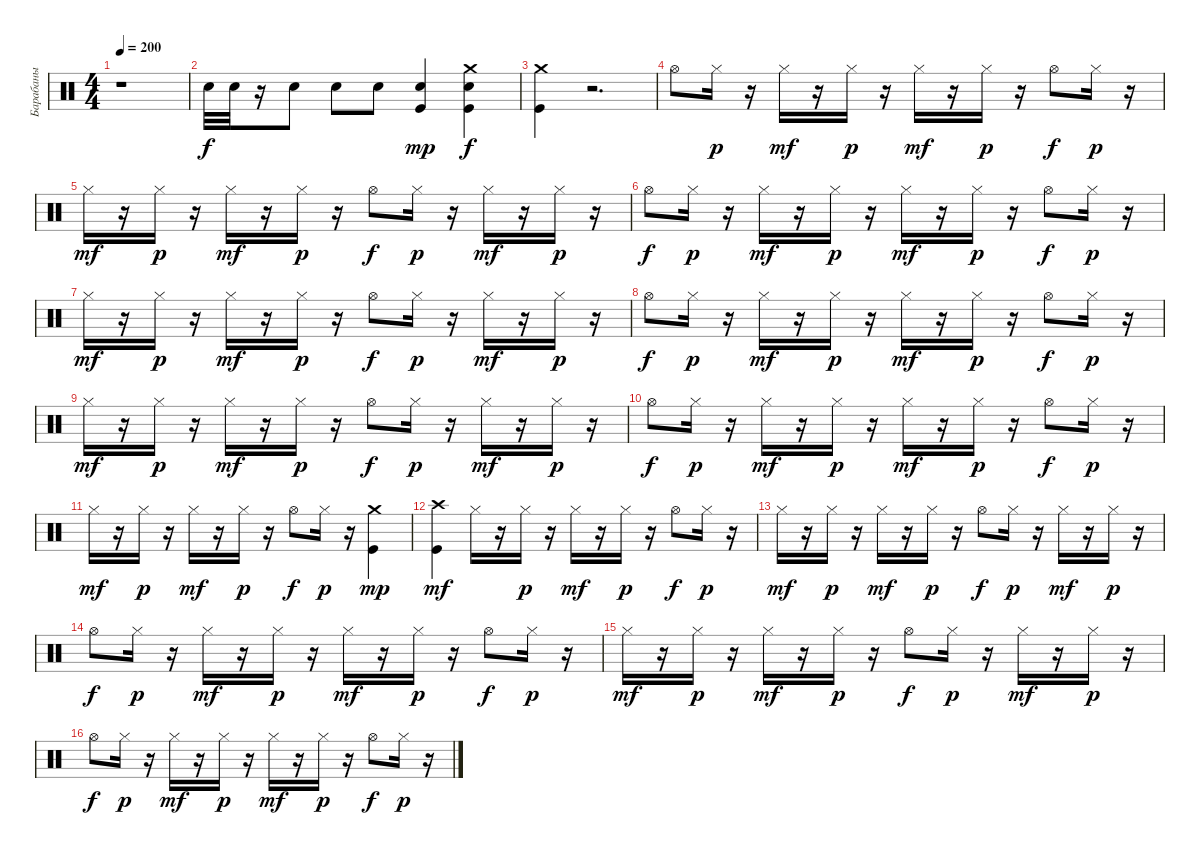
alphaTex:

\track ("Барабаны" "Барабаны") {instrument percussion}
\staff {score}
\articulation defaults
\ts (4 4)
\tempo 200
\clef neutral
\ks c
r.1{dy f} |
"Electric Snare (hit)".32{volume 11 balance 8} "Electric Snare (hit)".32 r.16 "Electric Snare (hit)".8 "Electric Snare (hit)".8 "Electric Snare (hit)".8 ("Kick (hit)" "Electric Snare (hit)").4{dy mp} ("Kick (hit)" "Crash medium (hit)" "Electric Snare (hit)").4{dy f} |
("Kick (hit)" "Crash medium (hit)").4 r.2{d} |
"Hi-Hat (open)".8 "Hi-Hat (closed)".16{dy p} r.16 "Hi-Hat (closed)".16{dy mf} r.16 "Hi-Hat (closed)".16{dy p} r.16 "Hi-Hat (closed)".16{dy mf} r.16 "Hi-Hat (closed)".16{dy p} r.16 "Hi-Hat (open)".8{dy f} "Hi-Hat (closed)".16{dy p} r.16 |
"Hi-Hat (closed)".16{dy mf} r.16 "Hi-Hat (closed)".16{dy p} r.16 "Hi-Hat (closed)".16{dy mf} r.16 "Hi-Hat (closed)".16{dy p} r.16 "Hi-Hat (open)".8{dy f} "Hi-Hat (closed)".16{dy p} r.16 "Hi-Hat (closed)".16{dy mf} r.16 "Hi-Hat (closed)".16{dy p} r.16 |
"Hi-Hat (open)".8{dy f} "Hi-Hat (closed)".16{dy p} r.16 "Hi-Hat (closed)".16{dy mf} r.16 "Hi-Hat (closed)".16{dy p} r.16 "Hi-Hat (closed)".16{dy mf} r.16 "Hi-Hat (closed)".16{dy p} r.16 "Hi-Hat (open)".8{dy f} "Hi-Hat (closed)".16{dy p} r.16 |
"Hi-Hat (closed)".16{dy mf} r.16 "Hi-Hat (closed)".16{dy p} r.16 "Hi-Hat (closed)".16{dy mf} r.16 "Hi-Hat (closed)".16{dy p} r.16 "Hi-Hat (open)".8{dy f} "Hi-Hat (closed)".16{dy p} r.16 "Hi-Hat (closed)".16{dy mf} r.16 "Hi-Hat (closed)".16{dy p} r.16 |
"Hi-Hat (open)".8{dy f} "Hi-Hat (closed)".16{dy p} r.16 "Hi-Hat (closed)".16{dy mf} r.16 "Hi-Hat (closed)".16{dy p} r.16 "Hi-Hat (closed)".16{dy mf} r.16 "Hi-Hat (closed)".16{dy p} r.16 "Hi-Hat (open)".8{dy f} "Hi-Hat (closed)".16{dy p} r.16 |
"Hi-Hat (closed)".16{dy mf} r.16 "Hi-Hat (closed)".16{dy p} r.16 "Hi-Hat (closed)".16{dy mf} r.16 "Hi-Hat (closed)".16{dy p} r.16 "Hi-Hat (open)".8{dy f} "Hi-Hat (closed)".16{dy p} r.16 "Hi-Hat (closed)".16{dy mf} r.16 "Hi-Hat (closed)".16{dy p} r.16 |
"Hi-Hat (open)".8{dy f} "Hi-Hat (closed)".16{dy p} r.16 "Hi-Hat (closed)".16{dy mf} r.16 "Hi-Hat (closed)".16{dy p} r.16 "Hi-Hat (closed)".16{dy mf} r.16 "Hi-Hat (closed)".16{dy p} r.16 "Hi-Hat (open)".8{dy f} "Hi-Hat (closed)".16{dy p} r.16 |
"Hi-Hat (closed)".16{dy mf} r.16 "Hi-Hat (closed)".16{dy p} r.16 "Hi-Hat (closed)".16{dy mf} r.16 "Hi-Hat (closed)".16{dy p} r.16 "Hi-Hat (open)".8{dy f} "Hi-Hat (closed)".16{dy p} r.16 ("Crash medium (hit)" "Kick (hit)").4{dy mp} |
("Crash high (hit)" "Kick (hit)").4{dy mf} "Hi-Hat (closed)".16 r.16 "Hi-Hat (closed)".16{dy p} r.16 "Hi-Hat (closed)".16{dy mf} r.16 "Hi-Hat (closed)".16{dy p} r.16 "Hi-Hat (open)".8{dy f} "Hi-Hat (closed)".16{dy p} r.16 |
"Hi-Hat (closed)".16{dy mf} r.16 "Hi-Hat (closed)".16{dy p} r.16 "Hi-Hat (closed)".16{dy mf} r.16 "Hi-Hat (closed)".16{dy p} r.16 "Hi-Hat (open)".8{dy f} "Hi-Hat (closed)".16{dy p} r.16 "Hi-Hat (closed)".16{dy mf} r.16 "Hi-Hat (closed)".16{dy p} r.16 |
"Hi-Hat (open)".8{dy f} "Hi-Hat (closed)".16{dy p} r.16 "Hi-Hat (closed)".16{dy mf} r.16 "Hi-Hat (closed)".16{dy p} r.16 "Hi-Hat (closed)".16{dy mf} r.16 "Hi-Hat (closed)".16{dy p} r.16 "Hi-Hat (open)".8{dy f} "Hi-Hat (closed)".16{dy p} r.16 |
"Hi-Hat (closed)".16{dy mf} r.16 "Hi-Hat (closed)".16{dy p} r.16 "Hi-Hat (closed)".16{dy mf} r.16 "Hi-Hat (closed)".16{dy p} r.16 "Hi-Hat (open)".8{dy f} "Hi-Hat (closed)".16{dy p} r.16 "Hi-Hat (closed)".16{dy mf} r.16 "Hi-Hat (closed)".16{dy p} r.16 |
"Hi-Hat (open)".8{dy f} "Hi-Hat (closed)".16{dy p} r.16 "Hi-Hat (closed)".16{dy mf} r.16 "Hi-Hat (closed)".16{dy p} r.16 "Hi-Hat (closed)".16{dy mf} r.16 "Hi-Hat (closed)".16{dy p} r.16 "Hi-Hat (open)".8{dy f} "Hi-Hat (closed)".16{dy p} r.16
